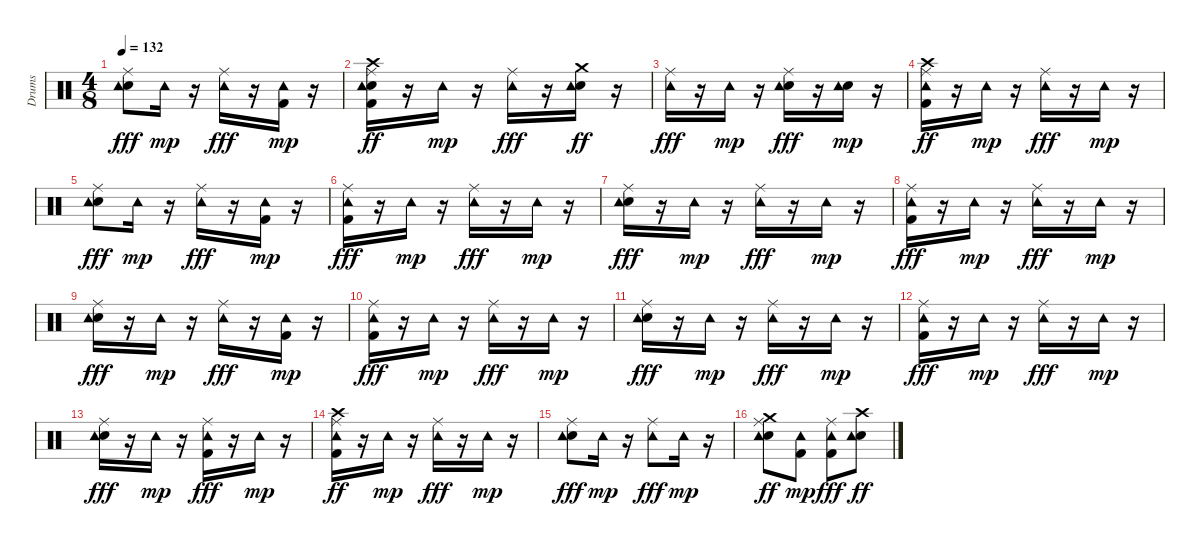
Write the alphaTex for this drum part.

\track ("Drums" "Drums") {instrument percussion}
\staff {score}
\articulation defaults
\ts (4 8)
\tempo 132
\clef neutral
\ks c
("Snare (hit) 2" "Ride (middle)" "Tambourine (hit)").8{dy fff} "Tambourine (hit)".16{dy mp} r.16 ("Ride (middle)" "Tambourine (hit)").16{dy fff} r.16 ("Kick (hit) 2" "Tambourine (hit)").16{dy mp} r.16 |
("Kick (hit) 2" "Snare (hit) 2" "Ride (middle)" "Tambourine (hit)" "Crash high (hit)").16{dy ff} r.16 "Tambourine (hit)".16{dy mp} r.16 ("Ride (middle)" "Tambourine (hit)").16{dy fff} r.16 ("Snare (hit) 2" "Tambourine (hit)" "Crash medium (hit)").16{dy ff} r.16 |
("Ride (middle)" "Tambourine (hit)").16{dy fff} r.16 "Tambourine (hit)".16{dy mp} r.16 ("Snare (hit) 2" "Ride (middle)" "Tambourine (hit)").16{dy fff} r.16 ("Snare (hit) 2" "Tambourine (hit)").16{dy mp} r.16 |
("Kick (hit) 2" "Ride (middle)" "Tambourine (hit)" "Crash high (hit)").16{dy ff} r.16 "Tambourine (hit)".16{dy mp} r.16 ("Ride (middle)" "Tambourine (hit)").16{dy fff} r.16 "Tambourine (hit)".16{dy mp} r.16 |
("Snare (hit) 2" "Ride (middle)" "Tambourine (hit)").8{dy fff} "Tambourine (hit)".16{dy mp} r.16 ("Ride (middle)" "Tambourine (hit)").16{dy fff} r.16 ("Kick (hit) 2" "Tambourine (hit)").16{dy mp} r.16 |
("Kick (hit) 2" "Ride (middle)" "Tambourine (hit)").16{dy fff} r.16 "Tambourine (hit)".16{dy mp} r.16 ("Ride (middle)" "Tambourine (hit)").16{dy fff} r.16 "Tambourine (hit)".16{dy mp} r.16 |
("Snare (hit) 2" "Ride (middle)" "Tambourine (hit)").16{dy fff} r.16 "Tambourine (hit)".16{dy mp} r.16 ("Ride (middle)" "Tambourine (hit)").16{dy fff} r.16 "Tambourine (hit)".16{dy mp} r.16 |
("Kick (hit) 2" "Ride (middle)" "Tambourine (hit)").16{dy fff} r.16 "Tambourine (hit)".16{dy mp} r.16 ("Ride (middle)" "Tambourine (hit)").16{dy fff} r.16 "Tambourine (hit)".16{dy mp} r.16 |
("Snare (hit) 2" "Ride (middle)" "Tambourine (hit)").16{dy fff} r.16 "Tambourine (hit)".16{dy mp} r.16 ("Ride (middle)" "Tambourine (hit)").16{dy fff} r.16 ("Kick (hit) 2" "Tambourine (hit)").16{dy mp} r.16 |
("Kick (hit) 2" "Ride (middle)" "Tambourine (hit)").16{dy fff} r.16 "Tambourine (hit)".16{dy mp} r.16 ("Ride (middle)" "Tambourine (hit)").16{dy fff} r.16 "Tambourine (hit)".16{dy mp} r.16 |
("Snare (hit) 2" "Ride (middle)" "Tambourine (hit)").16{dy fff} r.16 "Tambourine (hit)".16{dy mp} r.16 ("Ride (middle)" "Tambourine (hit)").16{dy fff} r.16 "Tambourine (hit)".16{dy mp} r.16 |
("Kick (hit) 2" "Ride (middle)" "Tambourine (hit)").16{dy fff} r.16 "Tambourine (hit)".16{dy mp} r.16 ("Ride (middle)" "Tambourine (hit)").16{dy fff} r.16 "Tambourine (hit)".16{dy mp} r.16 |
("Snare (hit) 2" "Ride (middle)" "Tambourine (hit)").16{dy fff} r.16 "Tambourine (hit)".16{dy mp} r.16 ("Kick (hit) 2" "Ride (middle)" "Tambourine (hit)").16{dy fff} r.16 "Tambourine (hit)".16{dy mp} r.16 |
("Kick (hit) 2" "Ride (middle)" "Tambourine (hit)" "Crash high (hit)").16{dy ff} r.16 "Tambourine (hit)".16{dy mp} r.16 ("Ride (middle)" "Tambourine (hit)").16{dy fff} r.16 "Tambourine (hit)".16{dy mp} r.16 |
("Snare (hit) 2" "Ride (middle)" "Tambourine (hit)").8{dy fff} "Tambourine (hit)".16{dy mp} r.16 ("Ride (middle)" "Tambourine (hit)").8{dy fff} "Tambourine (hit)".16{dy mp} r.16 |
("Snare (hit) 2" "Ride (middle)" "Tambourine (hit)" "Crash medium (hit)").8{dy ff} ("Kick (hit) 2" "Tambourine (hit)").8{dy mp} ("Kick (hit) 2" "Ride (middle)" "Tambourine (hit)").8{dy fff} ("Snare (hit) 2" "Tambourine (hit)" "Crash high (hit)").8{dy ff}
